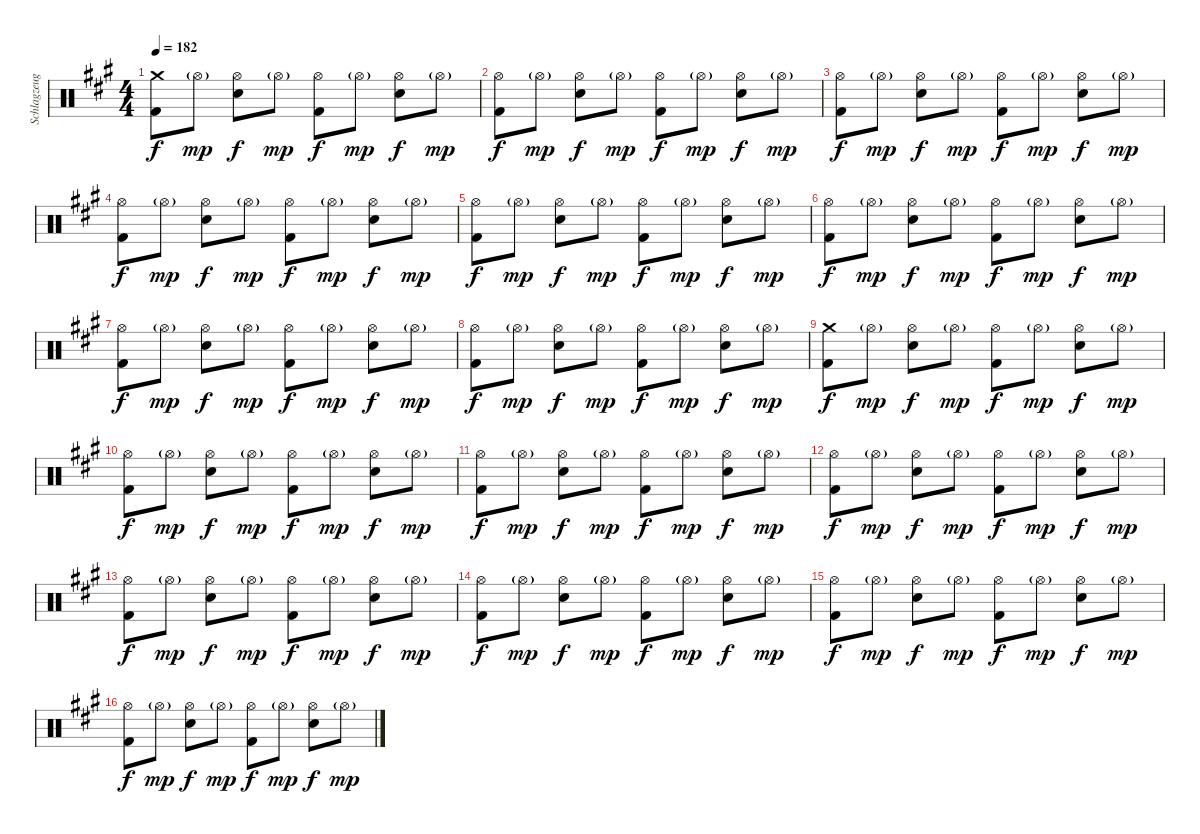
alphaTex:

\track ("Schlagzeug" "Schlagzeug") {instrument percussion}
\staff {score}
\articulation defaults
\ts (4 4)
\tempo 182
\clef neutral
\ks a
("Crash medium (hit)" "Kick (hit) 2").8{dy f} "Hi-Hat (open)"{g}.8{dy mp} ("Hi-Hat (open)" "Snare (hit) 2").8{dy f} "Hi-Hat (open)"{g}.8{dy mp} ("Hi-Hat (open)" "Kick (hit) 2").8{dy f} "Hi-Hat (open)"{g}.8{dy mp} ("Hi-Hat (open)" "Snare (hit) 2").8{dy f} "Hi-Hat (open)"{g}.8{dy mp} |
("Hi-Hat (open)" "Kick (hit) 2").8{dy f} "Hi-Hat (open)"{g}.8{dy mp} ("Hi-Hat (open)" "Snare (hit) 2").8{dy f} "Hi-Hat (open)"{g}.8{dy mp} ("Hi-Hat (open)" "Kick (hit) 2").8{dy f} "Hi-Hat (open)"{g}.8{dy mp} ("Hi-Hat (open)" "Snare (hit) 2").8{dy f} "Hi-Hat (open)"{g}.8{dy mp} |
("Hi-Hat (open)" "Kick (hit) 2").8{dy f} "Hi-Hat (open)"{g}.8{dy mp} ("Hi-Hat (open)" "Snare (hit) 2").8{dy f} "Hi-Hat (open)"{g}.8{dy mp} ("Hi-Hat (open)" "Kick (hit) 2").8{dy f} "Hi-Hat (open)"{g}.8{dy mp} ("Hi-Hat (open)" "Snare (hit) 2").8{dy f} "Hi-Hat (open)"{g}.8{dy mp} |
("Hi-Hat (open)" "Kick (hit) 2").8{dy f} "Hi-Hat (open)"{g}.8{dy mp} ("Hi-Hat (open)" "Snare (hit) 2").8{dy f} "Hi-Hat (open)"{g}.8{dy mp} ("Hi-Hat (open)" "Kick (hit) 2").8{dy f} "Hi-Hat (open)"{g}.8{dy mp} ("Hi-Hat (open)" "Snare (hit) 2").8{dy f} "Hi-Hat (open)"{g}.8{dy mp} |
("Hi-Hat (open)" "Kick (hit) 2").8{dy f} "Hi-Hat (open)"{g}.8{dy mp} ("Hi-Hat (open)" "Snare (hit) 2").8{dy f} "Hi-Hat (open)"{g}.8{dy mp} ("Hi-Hat (open)" "Kick (hit) 2").8{dy f} "Hi-Hat (open)"{g}.8{dy mp} ("Hi-Hat (open)" "Snare (hit) 2").8{dy f} "Hi-Hat (open)"{g}.8{dy mp} |
("Hi-Hat (open)" "Kick (hit) 2").8{dy f} "Hi-Hat (open)"{g}.8{dy mp} ("Hi-Hat (open)" "Snare (hit) 2").8{dy f} "Hi-Hat (open)"{g}.8{dy mp} ("Hi-Hat (open)" "Kick (hit) 2").8{dy f} "Hi-Hat (open)"{g}.8{dy mp} ("Hi-Hat (open)" "Snare (hit) 2").8{dy f} "Hi-Hat (open)"{g}.8{dy mp} |
("Hi-Hat (open)" "Kick (hit) 2").8{dy f} "Hi-Hat (open)"{g}.8{dy mp} ("Hi-Hat (open)" "Snare (hit) 2").8{dy f} "Hi-Hat (open)"{g}.8{dy mp} ("Hi-Hat (open)" "Kick (hit) 2").8{dy f} "Hi-Hat (open)"{g}.8{dy mp} ("Hi-Hat (open)" "Snare (hit) 2").8{dy f} "Hi-Hat (open)"{g}.8{dy mp} |
("Hi-Hat (open)" "Kick (hit) 2").8{dy f} "Hi-Hat (open)"{g}.8{dy mp} ("Hi-Hat (open)" "Snare (hit) 2").8{dy f} "Hi-Hat (open)"{g}.8{dy mp} ("Hi-Hat (open)" "Kick (hit) 2").8{dy f} "Hi-Hat (open)"{g}.8{dy mp} ("Hi-Hat (open)" "Snare (hit) 2").8{dy f} "Hi-Hat (open)"{g}.8{dy mp} |
("Crash medium (hit)" "Kick (hit) 2").8{dy f} "Hi-Hat (open)"{g}.8{dy mp} ("Hi-Hat (open)" "Snare (hit) 2").8{dy f} "Hi-Hat (open)"{g}.8{dy mp} ("Hi-Hat (open)" "Kick (hit) 2").8{dy f} "Hi-Hat (open)"{g}.8{dy mp} ("Hi-Hat (open)" "Snare (hit) 2").8{dy f} "Hi-Hat (open)"{g}.8{dy mp} |
("Hi-Hat (open)" "Kick (hit) 2").8{dy f} "Hi-Hat (open)"{g}.8{dy mp} ("Hi-Hat (open)" "Snare (hit) 2").8{dy f} "Hi-Hat (open)"{g}.8{dy mp} ("Hi-Hat (open)" "Kick (hit) 2").8{dy f} "Hi-Hat (open)"{g}.8{dy mp} ("Hi-Hat (open)" "Snare (hit) 2").8{dy f} "Hi-Hat (open)"{g}.8{dy mp} |
("Hi-Hat (open)" "Kick (hit) 2").8{dy f} "Hi-Hat (open)"{g}.8{dy mp} ("Hi-Hat (open)" "Snare (hit) 2").8{dy f} "Hi-Hat (open)"{g}.8{dy mp} ("Hi-Hat (open)" "Kick (hit) 2").8{dy f} "Hi-Hat (open)"{g}.8{dy mp} ("Hi-Hat (open)" "Snare (hit) 2").8{dy f} "Hi-Hat (open)"{g}.8{dy mp} |
("Hi-Hat (open)" "Kick (hit) 2").8{dy f} "Hi-Hat (open)"{g}.8{dy mp} ("Hi-Hat (open)" "Snare (hit) 2").8{dy f} "Hi-Hat (open)"{g}.8{dy mp} ("Hi-Hat (open)" "Kick (hit) 2").8{dy f} "Hi-Hat (open)"{g}.8{dy mp} ("Hi-Hat (open)" "Snare (hit) 2").8{dy f} "Hi-Hat (open)"{g}.8{dy mp} |
("Hi-Hat (open)" "Kick (hit) 2").8{dy f} "Hi-Hat (open)"{g}.8{dy mp} ("Hi-Hat (open)" "Snare (hit) 2").8{dy f} "Hi-Hat (open)"{g}.8{dy mp} ("Hi-Hat (open)" "Kick (hit) 2").8{dy f} "Hi-Hat (open)"{g}.8{dy mp} ("Hi-Hat (open)" "Snare (hit) 2").8{dy f} "Hi-Hat (open)"{g}.8{dy mp} |
("Hi-Hat (open)" "Kick (hit) 2").8{dy f} "Hi-Hat (open)"{g}.8{dy mp} ("Hi-Hat (open)" "Snare (hit) 2").8{dy f} "Hi-Hat (open)"{g}.8{dy mp} ("Hi-Hat (open)" "Kick (hit) 2").8{dy f} "Hi-Hat (open)"{g}.8{dy mp} ("Hi-Hat (open)" "Snare (hit) 2").8{dy f} "Hi-Hat (open)"{g}.8{dy mp} |
("Hi-Hat (open)" "Kick (hit) 2").8{dy f} "Hi-Hat (open)"{g}.8{dy mp} ("Hi-Hat (open)" "Snare (hit) 2").8{dy f} "Hi-Hat (open)"{g}.8{dy mp} ("Hi-Hat (open)" "Kick (hit) 2").8{dy f} "Hi-Hat (open)"{g}.8{dy mp} ("Hi-Hat (open)" "Snare (hit) 2").8{dy f} "Hi-Hat (open)"{g}.8{dy mp} |
("Hi-Hat (open)" "Kick (hit) 2").8{dy f} "Hi-Hat (open)"{g}.8{dy mp} ("Hi-Hat (open)" "Snare (hit) 2").8{dy f} "Hi-Hat (open)"{g}.8{dy mp} ("Hi-Hat (open)" "Kick (hit) 2").8{dy f} "Hi-Hat (open)"{g}.8{dy mp} ("Hi-Hat (open)" "Snare (hit) 2").8{dy f} "Hi-Hat (open)"{g}.8{dy mp}
